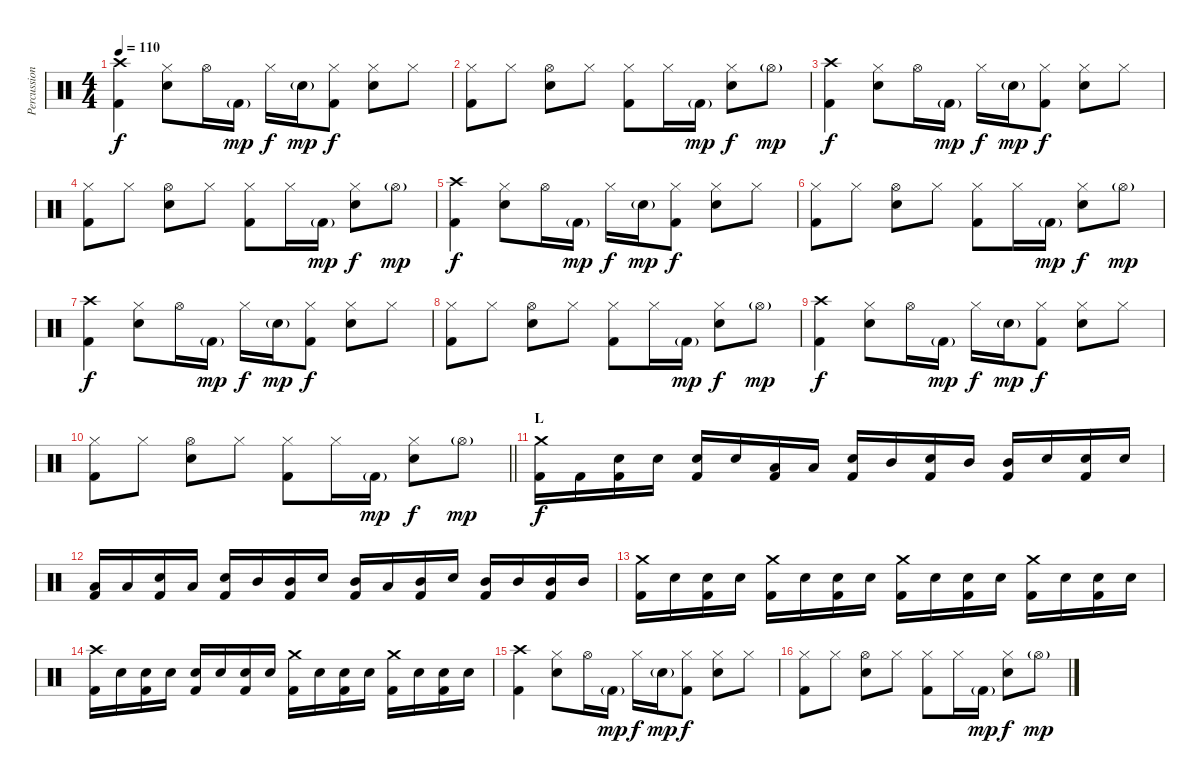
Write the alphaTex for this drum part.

\track ("Percussion" "Percussion") {instrument percussion}
\staff {score}
\articulation defaults
\ts (4 4)
\tempo 110
\clef neutral
\ks c
("Crash high (hit)" "Kick (hit) 2").4{dy f} ("Hi-Hat (closed)" "Electric Snare (hit)").8 "Hi-Hat (open)".16 "Kick (hit) 2"{g}.16{dy mp} "Hi-Hat (closed)".16{dy f} "Electric Snare (hit)"{g}.16{dy mp} ("Hi-Hat (closed)" "Kick (hit) 2").8{dy f} ("Hi-Hat (closed)" "Electric Snare (hit)").8 "Hi-Hat (closed)".8 |
("Hi-Hat (closed)" "Kick (hit) 2").8 "Hi-Hat (closed)".8 ("Hi-Hat (open)" "Electric Snare (hit)").8 "Hi-Hat (closed)".8 ("Hi-Hat (closed)" "Kick (hit) 2").8 "Hi-Hat (closed)".16 "Kick (hit) 2"{g}.16{dy mp} ("Hi-Hat (closed)" "Electric Snare (hit)").8{dy f} "Hi-Hat (open)"{g}.8{dy mp} |
("Crash high (hit)" "Kick (hit) 2").4{dy f} ("Hi-Hat (closed)" "Electric Snare (hit)").8 "Hi-Hat (open)".16 "Kick (hit) 2"{g}.16{dy mp} "Hi-Hat (closed)".16{dy f} "Electric Snare (hit)"{g}.16{dy mp} ("Hi-Hat (closed)" "Kick (hit) 2").8{dy f} ("Hi-Hat (closed)" "Electric Snare (hit)").8 "Hi-Hat (closed)".8 |
("Hi-Hat (closed)" "Kick (hit) 2").8 "Hi-Hat (closed)".8 ("Hi-Hat (open)" "Electric Snare (hit)").8 "Hi-Hat (closed)".8 ("Hi-Hat (closed)" "Kick (hit) 2").8 "Hi-Hat (closed)".16 "Kick (hit) 2"{g}.16{dy mp} ("Hi-Hat (closed)" "Electric Snare (hit)").8{dy f} "Hi-Hat (open)"{g}.8{dy mp} |
("Crash high (hit)" "Kick (hit) 2").4{dy f} ("Hi-Hat (closed)" "Electric Snare (hit)").8 "Hi-Hat (open)".16 "Kick (hit) 2"{g}.16{dy mp} "Hi-Hat (closed)".16{dy f} "Electric Snare (hit)"{g}.16{dy mp} ("Hi-Hat (closed)" "Kick (hit) 2").8{dy f} ("Hi-Hat (closed)" "Electric Snare (hit)").8 "Hi-Hat (closed)".8 |
("Hi-Hat (closed)" "Kick (hit) 2").8 "Hi-Hat (closed)".8 ("Hi-Hat (open)" "Electric Snare (hit)").8 "Hi-Hat (closed)".8 ("Hi-Hat (closed)" "Kick (hit) 2").8 "Hi-Hat (closed)".16 "Kick (hit) 2"{g}.16{dy mp} ("Hi-Hat (closed)" "Electric Snare (hit)").8{dy f} "Hi-Hat (open)"{g}.8{dy mp} |
("Crash high (hit)" "Kick (hit) 2").4{dy f} ("Hi-Hat (closed)" "Electric Snare (hit)").8 "Hi-Hat (open)".16 "Kick (hit) 2"{g}.16{dy mp} "Hi-Hat (closed)".16{dy f} "Electric Snare (hit)"{g}.16{dy mp} ("Hi-Hat (closed)" "Kick (hit) 2").8{dy f} ("Hi-Hat (closed)" "Electric Snare (hit)").8 "Hi-Hat (closed)".8 |
("Hi-Hat (closed)" "Kick (hit) 2").8 "Hi-Hat (closed)".8 ("Hi-Hat (open)" "Electric Snare (hit)").8 "Hi-Hat (closed)".8 ("Hi-Hat (closed)" "Kick (hit) 2").8 "Hi-Hat (closed)".16 "Kick (hit) 2"{g}.16{dy mp} ("Hi-Hat (closed)" "Electric Snare (hit)").8{dy f} "Hi-Hat (open)"{g}.8{dy mp} |
("Crash high (hit)" "Kick (hit) 2").4{dy f} ("Hi-Hat (closed)" "Electric Snare (hit)").8 "Hi-Hat (open)".16 "Kick (hit) 2"{g}.16{dy mp} "Hi-Hat (closed)".16{dy f} "Electric Snare (hit)"{g}.16{dy mp} ("Hi-Hat (closed)" "Kick (hit) 2").8{dy f} ("Hi-Hat (closed)" "Electric Snare (hit)").8 "Hi-Hat (closed)".8 |
\barLineRight lightlight
("Hi-Hat (closed)" "Kick (hit) 2").8 "Hi-Hat (closed)".8 ("Hi-Hat (open)" "Electric Snare (hit)").8 "Hi-Hat (closed)".8 ("Hi-Hat (closed)" "Kick (hit) 2").8 "Hi-Hat (closed)".16 "Kick (hit) 2"{g}.16{dy mp} ("Hi-Hat (closed)" "Electric Snare (hit)").8{dy f} "Hi-Hat (open)"{g}.8{dy mp} |
\section ("" "L")
("Crash medium (hit)" "Kick (hit) 2").16{dy f} "Kick (hit) 2".16 ("Electric Snare (hit)" "Kick (hit) 2").16 "Electric Snare (hit)".16 ("Electric Snare (hit)" "Kick (hit) 2").16 "Electric Snare (hit)".16 ("Low Tom (hit)" "Kick (hit) 2").16 "Low Tom (hit)".16 ("Electric Snare (hit)" "Kick (hit) 2").16 "Mid Tom (hit)".16 ("Electric Snare (hit)" "Kick (hit) 2").16 "Mid Tom (hit)".16 ("Mid Tom (hit)" "Kick (hit) 2").16 "Electric Snare (hit)".16 ("Electric Snare (hit)" "Kick (hit) 2").16 "Electric Snare (hit)".16 |
("Low Floor Tom (hit)" "Kick (hit) 2").16 "Low Floor Tom (hit)".16 ("Electric Snare (hit)" "Kick (hit) 2").16 "Low Tom (hit)".16 ("Electric Snare (hit)" "Kick (hit) 2").16 "Mid Tom (hit)".16 ("Mid Tom (hit)" "Kick (hit) 2").16 "Electric Snare (hit)".16 ("Mid Tom (hit)" "Kick (hit) 2").16 "Low Tom (hit)".16 ("Mid Tom (hit)" "Kick (hit) 2").16 "Electric Snare (hit)".16 ("Mid Tom (hit)" "Kick (hit) 2").16 "Mid Tom (hit)".16 ("Mid Tom (hit)" "Kick (hit) 2").16 "Mid Tom (hit)".16 |
("Crash medium (hit)" "Kick (hit) 2").16 "Electric Snare (hit)".16 ("Electric Snare (hit)" "Kick (hit) 2").16 "Electric Snare (hit)".16 ("Crash medium (hit)" "Kick (hit) 2").16 "Electric Snare (hit)".16 ("Electric Snare (hit)" "Kick (hit) 2").16 "Electric Snare (hit)".16 ("Crash medium (hit)" "Kick (hit) 2").16 "Electric Snare (hit)".16 ("Electric Snare (hit)" "Kick (hit) 2").16 "Electric Snare (hit)".16 ("Crash medium (hit)" "Kick (hit) 2").16 "Electric Snare (hit)".16 ("Electric Snare (hit)" "Kick (hit) 2").16 "Electric Snare (hit)".16 |
("Crash high (hit)" "Kick (hit) 2").16 "Electric Snare (hit)".16 ("Electric Snare (hit)" "Kick (hit) 2").16 "Electric Snare (hit)".16 ("Electric Snare (hit)" "Kick (hit) 2").16 "Electric Snare (hit)".16 ("Electric Snare (hit)" "Kick (hit) 2").16 "Electric Snare (hit)".16 ("Crash medium (hit)" "Kick (hit) 2").16 "Electric Snare (hit)".16 ("Electric Snare (hit)" "Kick (hit) 2").16 "Electric Snare (hit)".16 ("Crash medium (hit)" "Kick (hit) 2").16 "Electric Snare (hit)".16 ("Electric Snare (hit)" "Kick (hit) 2").16 "Electric Snare (hit)".16 |
("Crash high (hit)" "Kick (hit) 2").4 ("Hi-Hat (closed)" "Electric Snare (hit)").8 "Hi-Hat (open)".16 "Kick (hit) 2"{g}.16{dy mp} "Hi-Hat (closed)".16{dy f} "Electric Snare (hit)"{g}.16{dy mp} ("Hi-Hat (closed)" "Kick (hit) 2").8{dy f} ("Hi-Hat (closed)" "Electric Snare (hit)").8 "Hi-Hat (closed)".8 |
("Hi-Hat (closed)" "Kick (hit) 2").8 "Hi-Hat (closed)".8 ("Hi-Hat (open)" "Electric Snare (hit)").8 "Hi-Hat (closed)".8 ("Hi-Hat (closed)" "Kick (hit) 2").8 "Hi-Hat (closed)".16 "Kick (hit) 2"{g}.16{dy mp} ("Hi-Hat (closed)" "Electric Snare (hit)").8{dy f} "Hi-Hat (open)"{g}.8{dy mp}
